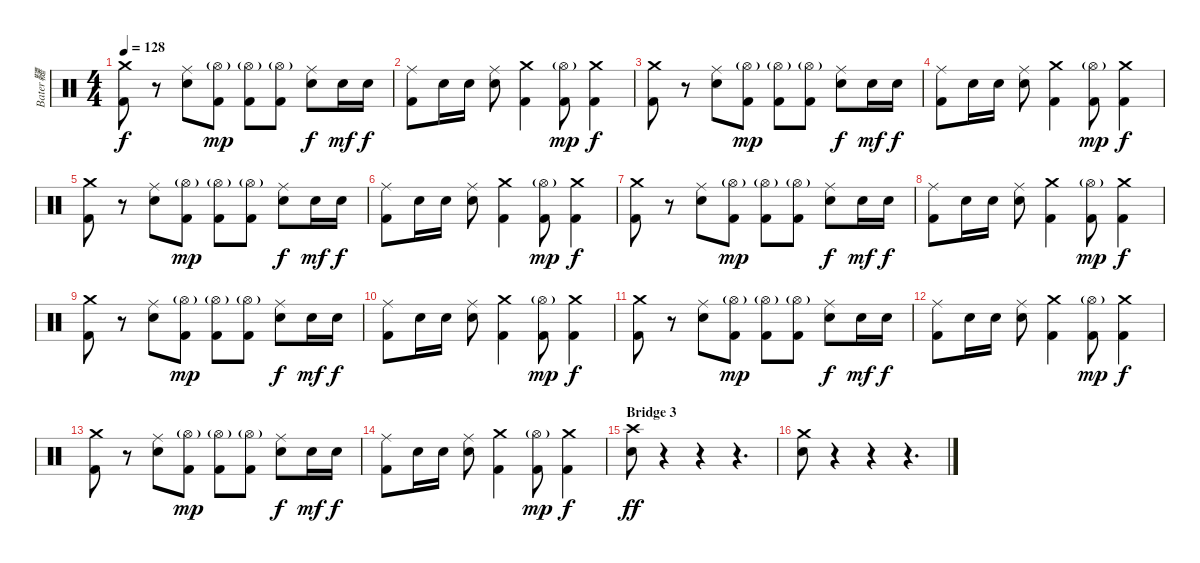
\track ("Bater韆" "Bater韆") {instrument percussion}
\staff {score}
\articulation defaults
\ts (4 4)
\tempo 128
\clef neutral
\ks c
("Crash medium (hit)" "Kick (hit) 2").8{dy f} r.8 ("Ride (middle)" "Electric Snare (hit)").8 ("Hi-Hat (open)"{g} "Kick (hit) 2").8{dy mp} ("Hi-Hat (open)"{g} "Kick (hit) 2").8 ("Hi-Hat (open)"{g} "Kick (hit) 2").8 ("Ride (middle)" "Electric Snare (hit)").8{dy f} "Electric Snare (hit)".16{dy mf} "Electric Snare (hit)".16{dy f} |
("Ride (middle)" "Kick (hit) 2").8 "Electric Snare (hit)".16 "Electric Snare (hit)".16 ("Ride (middle)" "Electric Snare (hit)").8 ("Crash medium (hit)" "Kick (hit) 2").4 ("Hi-Hat (open)"{g} "Kick (hit) 2").8{dy mp} ("Crash medium (hit)" "Kick (hit) 2").4{dy f} |
("Crash medium (hit)" "Kick (hit) 2").8 r.8 ("Ride (middle)" "Electric Snare (hit)").8 ("Hi-Hat (open)"{g} "Kick (hit) 2").8{dy mp} ("Hi-Hat (open)"{g} "Kick (hit) 2").8 ("Hi-Hat (open)"{g} "Kick (hit) 2").8 ("Ride (middle)" "Electric Snare (hit)").8{dy f} "Electric Snare (hit)".16{dy mf} "Electric Snare (hit)".16{dy f} |
("Ride (middle)" "Kick (hit) 2").8 "Electric Snare (hit)".16 "Electric Snare (hit)".16 ("Ride (middle)" "Electric Snare (hit)").8 ("Crash medium (hit)" "Kick (hit) 2").4 ("Hi-Hat (open)"{g} "Kick (hit) 2").8{dy mp} ("Crash medium (hit)" "Kick (hit) 2").4{dy f} |
("Crash medium (hit)" "Kick (hit) 2").8 r.8 ("Ride (middle)" "Electric Snare (hit)").8 ("Hi-Hat (open)"{g} "Kick (hit) 2").8{dy mp} ("Hi-Hat (open)"{g} "Kick (hit) 2").8 ("Hi-Hat (open)"{g} "Kick (hit) 2").8 ("Ride (middle)" "Electric Snare (hit)").8{dy f} "Electric Snare (hit)".16{dy mf} "Electric Snare (hit)".16{dy f} |
("Ride (middle)" "Kick (hit) 2").8 "Electric Snare (hit)".16 "Electric Snare (hit)".16 ("Ride (middle)" "Electric Snare (hit)").8 ("Crash medium (hit)" "Kick (hit) 2").4 ("Hi-Hat (open)"{g} "Kick (hit) 2").8{dy mp} ("Crash medium (hit)" "Kick (hit) 2").4{dy f} |
("Crash medium (hit)" "Kick (hit) 2").8 r.8 ("Ride (middle)" "Electric Snare (hit)").8 ("Hi-Hat (open)"{g} "Kick (hit) 2").8{dy mp} ("Hi-Hat (open)"{g} "Kick (hit) 2").8 ("Hi-Hat (open)"{g} "Kick (hit) 2").8 ("Ride (middle)" "Electric Snare (hit)").8{dy f} "Electric Snare (hit)".16{dy mf} "Electric Snare (hit)".16{dy f} |
("Ride (middle)" "Kick (hit) 2").8 "Electric Snare (hit)".16 "Electric Snare (hit)".16 ("Ride (middle)" "Electric Snare (hit)").8 ("Crash medium (hit)" "Kick (hit) 2").4 ("Hi-Hat (open)"{g} "Kick (hit) 2").8{dy mp} ("Crash medium (hit)" "Kick (hit) 2").4{dy f} |
("Crash medium (hit)" "Kick (hit) 2").8 r.8 ("Ride (middle)" "Electric Snare (hit)").8 ("Hi-Hat (open)"{g} "Kick (hit) 2").8{dy mp} ("Hi-Hat (open)"{g} "Kick (hit) 2").8 ("Hi-Hat (open)"{g} "Kick (hit) 2").8 ("Ride (middle)" "Electric Snare (hit)").8{dy f} "Electric Snare (hit)".16{dy mf} "Electric Snare (hit)".16{dy f} |
("Ride (middle)" "Kick (hit) 2").8 "Electric Snare (hit)".16 "Electric Snare (hit)".16 ("Ride (middle)" "Electric Snare (hit)").8 ("Crash medium (hit)" "Kick (hit) 2").4 ("Hi-Hat (open)"{g} "Kick (hit) 2").8{dy mp} ("Crash medium (hit)" "Kick (hit) 2").4{dy f} |
("Crash medium (hit)" "Kick (hit) 2").8 r.8 ("Ride (middle)" "Electric Snare (hit)").8 ("Hi-Hat (open)"{g} "Kick (hit) 2").8{dy mp} ("Hi-Hat (open)"{g} "Kick (hit) 2").8 ("Hi-Hat (open)"{g} "Kick (hit) 2").8 ("Ride (middle)" "Electric Snare (hit)").8{dy f} "Electric Snare (hit)".16{dy mf} "Electric Snare (hit)".16{dy f} |
("Ride (middle)" "Kick (hit) 2").8 "Electric Snare (hit)".16 "Electric Snare (hit)".16 ("Ride (middle)" "Electric Snare (hit)").8 ("Crash medium (hit)" "Kick (hit) 2").4 ("Hi-Hat (open)"{g} "Kick (hit) 2").8{dy mp} ("Crash medium (hit)" "Kick (hit) 2").4{dy f} |
("Crash medium (hit)" "Kick (hit) 2").8 r.8 ("Ride (middle)" "Electric Snare (hit)").8 ("Hi-Hat (open)"{g} "Kick (hit) 2").8{dy mp} ("Hi-Hat (open)"{g} "Kick (hit) 2").8 ("Hi-Hat (open)"{g} "Kick (hit) 2").8 ("Ride (middle)" "Electric Snare (hit)").8{dy f} "Electric Snare (hit)".16{dy mf} "Electric Snare (hit)".16{dy f} |
("Ride (middle)" "Kick (hit) 2").8 "Electric Snare (hit)".16 "Electric Snare (hit)".16 ("Ride (middle)" "Electric Snare (hit)").8 ("Crash medium (hit)" "Kick (hit) 2").4 ("Hi-Hat (open)"{g} "Kick (hit) 2").8{dy mp} ("Crash medium (hit)" "Kick (hit) 2").4{dy f} |
\section ("" "Bridge 3")
("Crash high (hit)" "Electric Snare (hit)").8{dy ff} r.4 r.4 r.4{d} |
("Crash medium (hit)" "Electric Snare (hit)").8 r.4 r.4 r.4{d}
